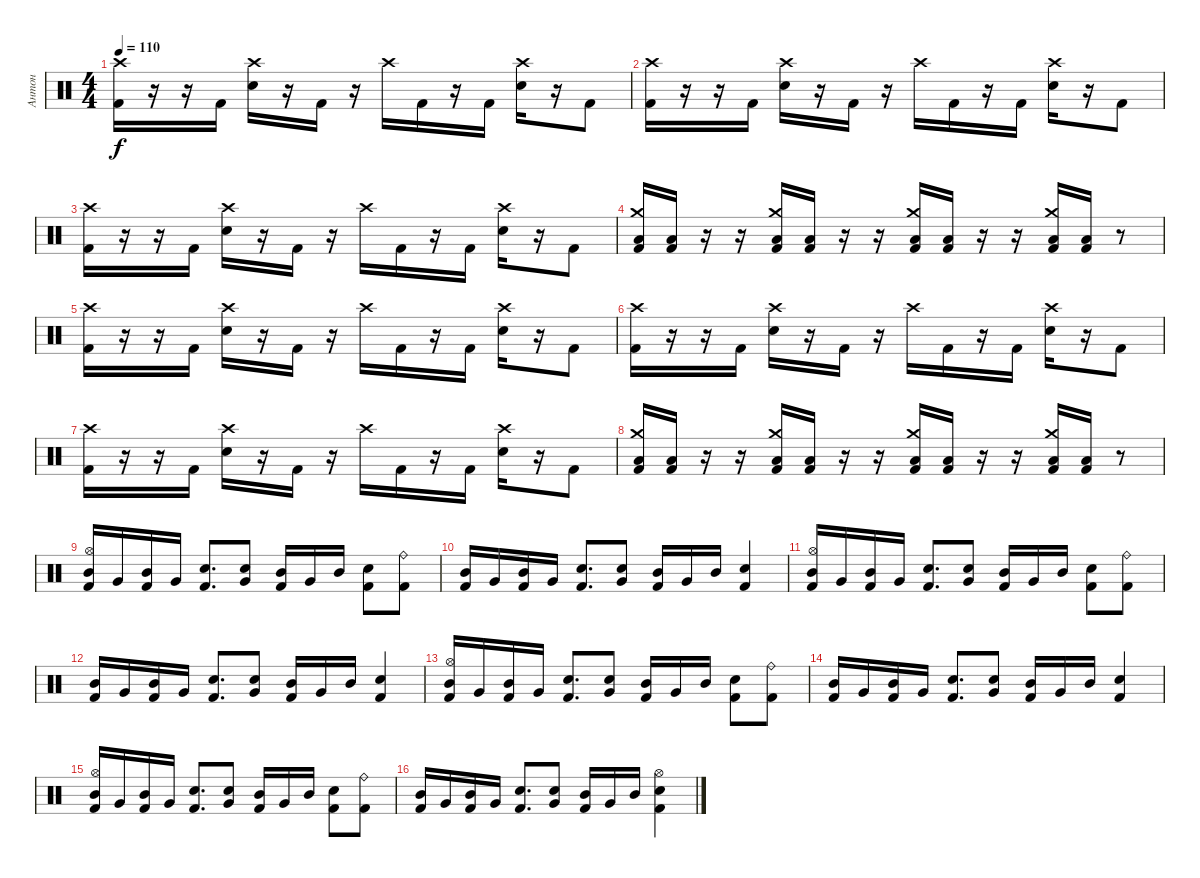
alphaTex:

\track ("Антон" "Антон") {instrument percussion}
\staff {score}
\articulation defaults
\ts (4 4)
\tempo 110
\clef neutral
\ks c
("Crash high (hit)" "Kick (hit) 2").16{dy f} r.16 r.16 "Kick (hit) 2".16 ("Crash high (hit)" "Electric Snare (hit)").16 r.16 "Kick (hit) 2".16 r.16 "Crash high (hit)".16 "Kick (hit) 2".16 r.16 "Kick (hit) 2".16 ("Crash high (hit)" "Electric Snare (hit)").16 r.16 "Kick (hit) 2".8 |
("Crash high (hit)" "Kick (hit) 2").16 r.16 r.16 "Kick (hit) 2".16 ("Crash high (hit)" "Electric Snare (hit)").16 r.16 "Kick (hit) 2".16 r.16 "Crash high (hit)".16 "Kick (hit) 2".16 r.16 "Kick (hit) 2".16 ("Crash high (hit)" "Electric Snare (hit)").16 r.16 "Kick (hit) 2".8 |
("Crash high (hit)" "Kick (hit) 2").16 r.16 r.16 "Kick (hit) 2".16 ("Crash high (hit)" "Electric Snare (hit)").16 r.16 "Kick (hit) 2".16 r.16 "Crash high (hit)".16 "Kick (hit) 2".16 r.16 "Kick (hit) 2".16 ("Crash high (hit)" "Electric Snare (hit)").16 r.16 "Kick (hit) 2".8 |
("Crash medium (hit)" "Low Tom (hit)" "Kick (hit) 2").16 ("Low Tom (hit)" "Kick (hit) 2").16 r.16 r.16 ("Crash medium (hit)" "Low Tom (hit)" "Kick (hit) 2").16 ("Low Tom (hit)" "Kick (hit) 2").16 r.16 r.16 ("Crash medium (hit)" "Low Tom (hit)" "Kick (hit) 2").16 ("Low Tom (hit)" "Kick (hit) 2").16 r.16 r.16 ("Crash medium (hit)" "Low Tom (hit)" "Kick (hit) 2").16 ("Low Tom (hit)" "Kick (hit) 2").16 r.8 |
("Crash high (hit)" "Kick (hit) 2").16 r.16 r.16 "Kick (hit) 2".16 ("Crash high (hit)" "Electric Snare (hit)").16 r.16 "Kick (hit) 2".16 r.16 "Crash high (hit)".16 "Kick (hit) 2".16 r.16 "Kick (hit) 2".16 ("Crash high (hit)" "Electric Snare (hit)").16 r.16 "Kick (hit) 2".8 |
("Crash high (hit)" "Kick (hit) 2").16 r.16 r.16 "Kick (hit) 2".16 ("Crash high (hit)" "Electric Snare (hit)").16 r.16 "Kick (hit) 2".16 r.16 "Crash high (hit)".16 "Kick (hit) 2".16 r.16 "Kick (hit) 2".16 ("Crash high (hit)" "Electric Snare (hit)").16 r.16 "Kick (hit) 2".8 |
("Crash high (hit)" "Kick (hit) 2").16 r.16 r.16 "Kick (hit) 2".16 ("Crash high (hit)" "Electric Snare (hit)").16 r.16 "Kick (hit) 2".16 r.16 "Crash high (hit)".16 "Kick (hit) 2".16 r.16 "Kick (hit) 2".16 ("Crash high (hit)" "Electric Snare (hit)").16 r.16 "Kick (hit) 2".8 |
("Crash medium (hit)" "Low Tom (hit)" "Kick (hit) 2").16 ("Low Tom (hit)" "Kick (hit) 2").16 r.16 r.16 ("Crash medium (hit)" "Low Tom (hit)" "Kick (hit) 2").16 ("Low Tom (hit)" "Kick (hit) 2").16 r.16 r.16 ("Crash medium (hit)" "Low Tom (hit)" "Kick (hit) 2").16 ("Low Tom (hit)" "Kick (hit) 2").16 r.16 r.16 ("Crash medium (hit)" "Low Tom (hit)" "Kick (hit) 2").16 ("Low Tom (hit)" "Kick (hit) 2").16 r.8 |
("Hi-Hat (open)" "Mid Tom (hit)" "Kick (hit) 2").16 "Very Low Tom (hit)".16 ("Mid Tom (hit)" "Kick (hit) 2").16 "Very Low Tom (hit)".16 ("Electric Snare (hit)" "Kick (hit) 2").8{d} ("Very Low Tom (hit)" "Electric Snare (hit)").8 ("Mid Tom (hit)" "Kick (hit) 2").16 "Very Low Tom (hit)".16 "Mid Tom (hit)".16 ("Electric Snare (hit)" "Kick (hit) 2").8 ("Ride (bell)" "Kick (hit) 2").8 |
("Mid Tom (hit)" "Kick (hit) 2").16 "Very Low Tom (hit)".16 ("Mid Tom (hit)" "Kick (hit) 2").16 "Very Low Tom (hit)".16 ("Electric Snare (hit)" "Kick (hit) 2").8{d} ("Very Low Tom (hit)" "Electric Snare (hit)").8 ("Mid Tom (hit)" "Kick (hit) 2").16 "Very Low Tom (hit)".16 "Mid Tom (hit)".16 ("Electric Snare (hit)" "Kick (hit) 2").4 |
("Hi-Hat (open)" "Mid Tom (hit)" "Kick (hit) 2").16 "Very Low Tom (hit)".16 ("Mid Tom (hit)" "Kick (hit) 2").16 "Very Low Tom (hit)".16 ("Electric Snare (hit)" "Kick (hit) 2").8{d} ("Very Low Tom (hit)" "Electric Snare (hit)").8 ("Mid Tom (hit)" "Kick (hit) 2").16 "Very Low Tom (hit)".16 "Mid Tom (hit)".16 ("Electric Snare (hit)" "Kick (hit) 2").8 ("Ride (bell)" "Kick (hit) 2").8 |
("Mid Tom (hit)" "Kick (hit) 2").16 "Very Low Tom (hit)".16 ("Mid Tom (hit)" "Kick (hit) 2").16 "Very Low Tom (hit)".16 ("Electric Snare (hit)" "Kick (hit) 2").8{d} ("Very Low Tom (hit)" "Electric Snare (hit)").8 ("Mid Tom (hit)" "Kick (hit) 2").16 "Very Low Tom (hit)".16 "Mid Tom (hit)".16 ("Electric Snare (hit)" "Kick (hit) 2").4 |
("Hi-Hat (open)" "Mid Tom (hit)" "Kick (hit) 2").16 "Very Low Tom (hit)".16 ("Mid Tom (hit)" "Kick (hit) 2").16 "Very Low Tom (hit)".16 ("Electric Snare (hit)" "Kick (hit) 2").8{d} ("Very Low Tom (hit)" "Electric Snare (hit)").8 ("Mid Tom (hit)" "Kick (hit) 2").16 "Very Low Tom (hit)".16 "Mid Tom (hit)".16 ("Electric Snare (hit)" "Kick (hit) 2").8 ("Ride (bell)" "Kick (hit) 2").8 |
("Mid Tom (hit)" "Kick (hit) 2").16 "Very Low Tom (hit)".16 ("Mid Tom (hit)" "Kick (hit) 2").16 "Very Low Tom (hit)".16 ("Electric Snare (hit)" "Kick (hit) 2").8{d} ("Very Low Tom (hit)" "Electric Snare (hit)").8 ("Mid Tom (hit)" "Kick (hit) 2").16 "Very Low Tom (hit)".16 "Mid Tom (hit)".16 ("Electric Snare (hit)" "Kick (hit) 2").4 |
("Hi-Hat (open)" "Mid Tom (hit)" "Kick (hit) 2").16 "Very Low Tom (hit)".16 ("Mid Tom (hit)" "Kick (hit) 2").16 "Very Low Tom (hit)".16 ("Electric Snare (hit)" "Kick (hit) 2").8{d} ("Very Low Tom (hit)" "Electric Snare (hit)").8 ("Mid Tom (hit)" "Kick (hit) 2").16 "Very Low Tom (hit)".16 "Mid Tom (hit)".16 ("Electric Snare (hit)" "Kick (hit) 2").8 ("Ride (bell)" "Kick (hit) 2").8 |
("Mid Tom (hit)" "Kick (hit) 2").16 "Very Low Tom (hit)".16 ("Mid Tom (hit)" "Kick (hit) 2").16 "Very Low Tom (hit)".16 ("Electric Snare (hit)" "Kick (hit) 2").8{d} ("Very Low Tom (hit)" "Electric Snare (hit)").8 ("Mid Tom (hit)" "Kick (hit) 2").16 "Very Low Tom (hit)".16 "Mid Tom (hit)".16 ("Hi-Hat (open)" "Electric Snare (hit)" "Kick (hit) 2").4
